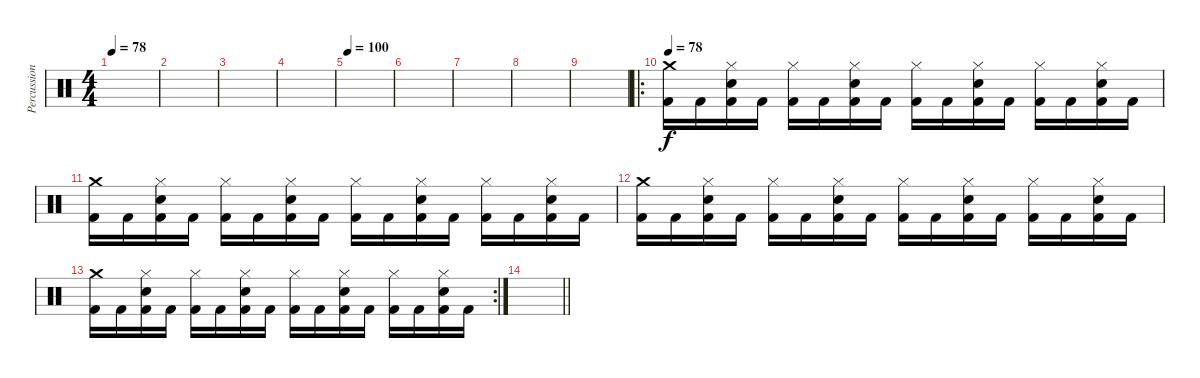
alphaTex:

\track ("Percussions" "Percussion") {instrument percussion}
\staff {score}
\articulation defaults
\ts (4 4)
\tempo 78
\clef neutral
\ks c
|
|
|
|
\tempo 100
|
|
|
|
|
\ro
\tempo 78
("Crash medium (hit)" "Kick (hit) 2").16 "Kick (hit) 2".16 ("Hi-Hat (closed)" "Electric Snare (hit)" "Kick (hit) 2").16 "Kick (hit) 2".16 ("Hi-Hat (closed)" "Kick (hit) 2").16 "Kick (hit) 2".16 ("Hi-Hat (closed)" "Electric Snare (hit)" "Kick (hit) 2").16 "Kick (hit) 2".16 ("Hi-Hat (closed)" "Kick (hit) 2").16 "Kick (hit) 2".16 ("Hi-Hat (closed)" "Electric Snare (hit)" "Kick (hit) 2").16 "Kick (hit) 2".16 ("Hi-Hat (closed)" "Kick (hit) 2").16 "Kick (hit) 2".16 ("Hi-Hat (closed)" "Electric Snare (hit)" "Kick (hit) 2").16 "Kick (hit) 2".16 |
("Crash medium (hit)" "Kick (hit) 2").16 "Kick (hit) 2".16 ("Hi-Hat (closed)" "Electric Snare (hit)" "Kick (hit) 2").16 "Kick (hit) 2".16 ("Hi-Hat (closed)" "Kick (hit) 2").16 "Kick (hit) 2".16 ("Hi-Hat (closed)" "Electric Snare (hit)" "Kick (hit) 2").16 "Kick (hit) 2".16 ("Hi-Hat (closed)" "Kick (hit) 2").16 "Kick (hit) 2".16 ("Hi-Hat (closed)" "Electric Snare (hit)" "Kick (hit) 2").16 "Kick (hit) 2".16 ("Hi-Hat (closed)" "Kick (hit) 2").16 "Kick (hit) 2".16 ("Hi-Hat (closed)" "Electric Snare (hit)" "Kick (hit) 2").16 "Kick (hit) 2".16 |
("Crash medium (hit)" "Kick (hit) 2").16 "Kick (hit) 2".16 ("Hi-Hat (closed)" "Electric Snare (hit)" "Kick (hit) 2").16 "Kick (hit) 2".16 ("Hi-Hat (closed)" "Kick (hit) 2").16 "Kick (hit) 2".16 ("Hi-Hat (closed)" "Electric Snare (hit)" "Kick (hit) 2").16 "Kick (hit) 2".16 ("Hi-Hat (closed)" "Kick (hit) 2").16 "Kick (hit) 2".16 ("Hi-Hat (closed)" "Electric Snare (hit)" "Kick (hit) 2").16 "Kick (hit) 2".16 ("Hi-Hat (closed)" "Kick (hit) 2").16 "Kick (hit) 2".16 ("Hi-Hat (closed)" "Electric Snare (hit)" "Kick (hit) 2").16 "Kick (hit) 2".16 |
\rc 2
("Crash medium (hit)" "Kick (hit) 2").16 "Kick (hit) 2".16 ("Hi-Hat (closed)" "Electric Snare (hit)" "Kick (hit) 2").16 "Kick (hit) 2".16 ("Hi-Hat (closed)" "Kick (hit) 2").16 "Kick (hit) 2".16 ("Hi-Hat (closed)" "Electric Snare (hit)" "Kick (hit) 2").16 "Kick (hit) 2".16 ("Hi-Hat (closed)" "Kick (hit) 2").16 "Kick (hit) 2".16 ("Hi-Hat (closed)" "Electric Snare (hit)" "Kick (hit) 2").16 "Kick (hit) 2".16 ("Hi-Hat (closed)" "Kick (hit) 2").16 "Kick (hit) 2".16 ("Hi-Hat (closed)" "Electric Snare (hit)" "Kick (hit) 2").16 "Kick (hit) 2".16 |
\barLineRight lightlight
